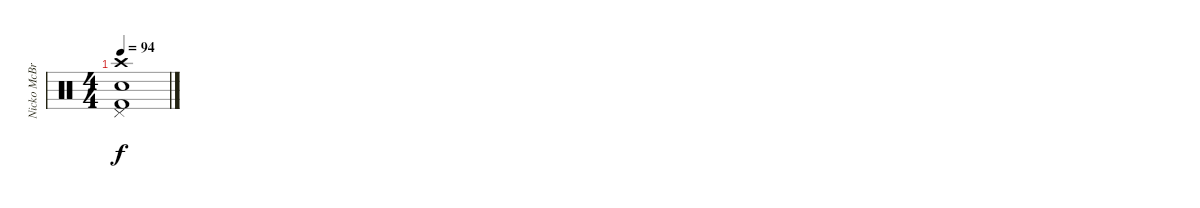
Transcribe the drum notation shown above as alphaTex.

\track ("Nicko McBrain" "Nicko McBr") {instrument percussion}
\staff {score}
\articulation defaults
\ts (4 4)
\tempo 94
\clef neutral
\ks c
("Snare (hit) 2" "Kick (hit) 2" "Pedal Hi-Hat (hit)" "Crash high (hit)").1{dy f}
